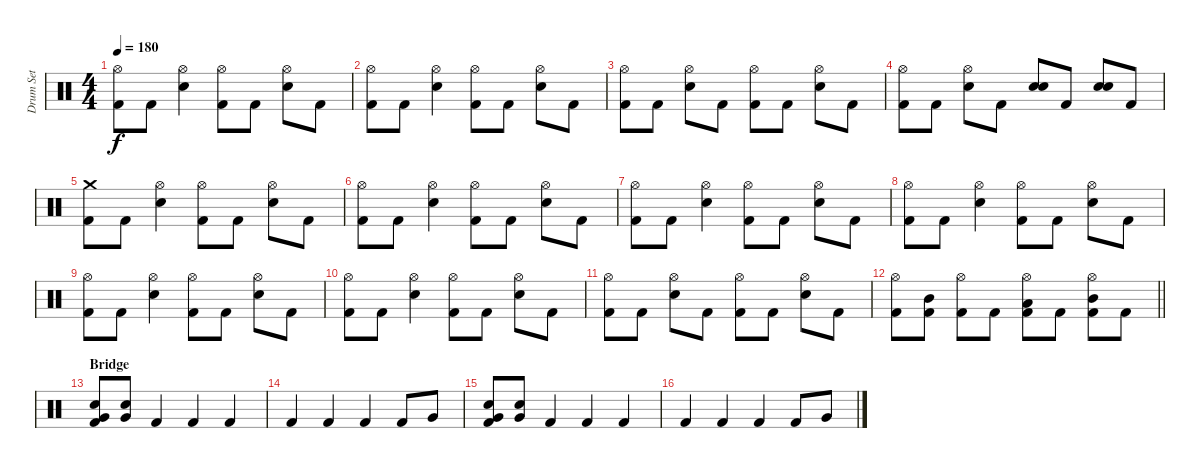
\track ("Drum Set" "Drum Set") {instrument percussion}
\staff {score}
\articulation defaults
\ts (4 4)
\tempo 180
\clef neutral
\ks c
("Hi-Hat (open)" "Kick (hit) 2").8{dy f} "Kick (hit) 2".8 ("Hi-Hat (open)" "Snare (hit) 2").4 ("Hi-Hat (open)" "Kick (hit) 2").8 "Kick (hit) 2".8 ("Hi-Hat (open)" "Snare (hit) 2").8 "Kick (hit) 2".8 |
("Hi-Hat (open)" "Kick (hit) 2").8 "Kick (hit) 2".8 ("Hi-Hat (open)" "Snare (hit) 2").4 ("Hi-Hat (open)" "Kick (hit) 2").8 "Kick (hit) 2".8 ("Hi-Hat (open)" "Snare (hit) 2").8 "Kick (hit) 2".8 |
("Hi-Hat (open)" "Kick (hit) 2").8 "Kick (hit) 2".8 ("Hi-Hat (open)" "Snare (hit) 2").8 "Kick (hit) 2".8 ("Hi-Hat (open)" "Kick (hit) 2").8 "Kick (hit) 2".8 ("Hi-Hat (open)" "Snare (hit) 2").8 "Kick (hit) 2".8 |
("Hi-Hat (open)" "Kick (hit) 2").8 "Kick (hit) 2".8 ("Hi-Hat (open)" "Snare (hit) 2").8 "Kick (hit) 2".8 ("Snare (hit) 2" "Snare (hit) 2").8 "Kick (hit) 2".8 ("Snare (hit) 2" "Snare (hit) 2").8 "Kick (hit) 2".8 |
("Crash medium (hit)" "Kick (hit) 2").8 "Kick (hit) 2".8 ("Hi-Hat (open)" "Snare (hit) 2").4 ("Hi-Hat (open)" "Kick (hit) 2").8 "Kick (hit) 2".8 ("Hi-Hat (open)" "Snare (hit) 2").8 "Kick (hit) 2".8 |
("Hi-Hat (open)" "Kick (hit) 2").8 "Kick (hit) 2".8 ("Hi-Hat (open)" "Snare (hit) 2").4 ("Hi-Hat (open)" "Kick (hit) 2").8 "Kick (hit) 2".8 ("Hi-Hat (open)" "Snare (hit) 2").8 "Kick (hit) 2".8 |
("Hi-Hat (open)" "Kick (hit) 2").8 "Kick (hit) 2".8 ("Hi-Hat (open)" "Snare (hit) 2").4 ("Hi-Hat (open)" "Kick (hit) 2").8 "Kick (hit) 2".8 ("Hi-Hat (open)" "Snare (hit) 2").8 "Kick (hit) 2".8 |
("Hi-Hat (open)" "Kick (hit) 2").8 "Kick (hit) 2".8 ("Hi-Hat (open)" "Snare (hit) 2").4 ("Hi-Hat (open)" "Kick (hit) 2").8 "Kick (hit) 2".8 ("Hi-Hat (open)" "Snare (hit) 2").8 "Kick (hit) 2".8 |
("Hi-Hat (open)" "Kick (hit) 2").8 "Kick (hit) 2".8 ("Hi-Hat (open)" "Snare (hit) 2").4 ("Hi-Hat (open)" "Kick (hit) 2").8 "Kick (hit) 2".8 ("Hi-Hat (open)" "Snare (hit) 2").8 "Kick (hit) 2".8 |
("Hi-Hat (open)" "Kick (hit) 2").8 "Kick (hit) 2".8 ("Hi-Hat (open)" "Snare (hit) 2").4 ("Hi-Hat (open)" "Kick (hit) 2").8 "Kick (hit) 2".8 ("Hi-Hat (open)" "Snare (hit) 2").8 "Kick (hit) 2".8 |
("Hi-Hat (open)" "Kick (hit) 2").8 "Kick (hit) 2".8 ("Hi-Hat (open)" "Snare (hit) 2").8 "Kick (hit) 2".8 ("Hi-Hat (open)" "Kick (hit) 2").8 "Kick (hit) 2".8 ("Hi-Hat (open)" "Snare (hit) 2").8 "Kick (hit) 2".8 |
\barLineRight lightlight
("Hi-Hat (open)" "Kick (hit) 2").8 ("Mid Tom (hit)" "Kick (hit) 2").8 ("Hi-Hat (open)" "Kick (hit) 2").8 "Kick (hit) 2".8 ("Hi-Hat (open)" "Low Tom (hit)" "Kick (hit) 2").8 "Kick (hit) 2".8 ("Hi-Hat (open)" "Mid Tom (hit)" "Kick (hit) 2").8 "Kick (hit) 2".8 |
\section ("" "Bridge")
("Snare (hit) 2" "Very Low Tom (hit)" "Kick (hit) 2").8 ("Snare (hit) 2" "Very Low Tom (hit)").8 "Kick (hit) 2".4 "Kick (hit) 2".4 "Kick (hit) 2".4 |
"Kick (hit) 2".4 "Kick (hit) 2".4 "Kick (hit) 2".4 "Kick (hit) 2".8 "Very Low Tom (hit)".8 |
("Snare (hit) 2" "Very Low Tom (hit)" "Kick (hit) 2").8 ("Snare (hit) 2" "Very Low Tom (hit)").8 "Kick (hit) 2".4 "Kick (hit) 2".4 "Kick (hit) 2".4 |
"Kick (hit) 2".4 "Kick (hit) 2".4 "Kick (hit) 2".4 "Kick (hit) 2".8 "Very Low Tom (hit)".8
